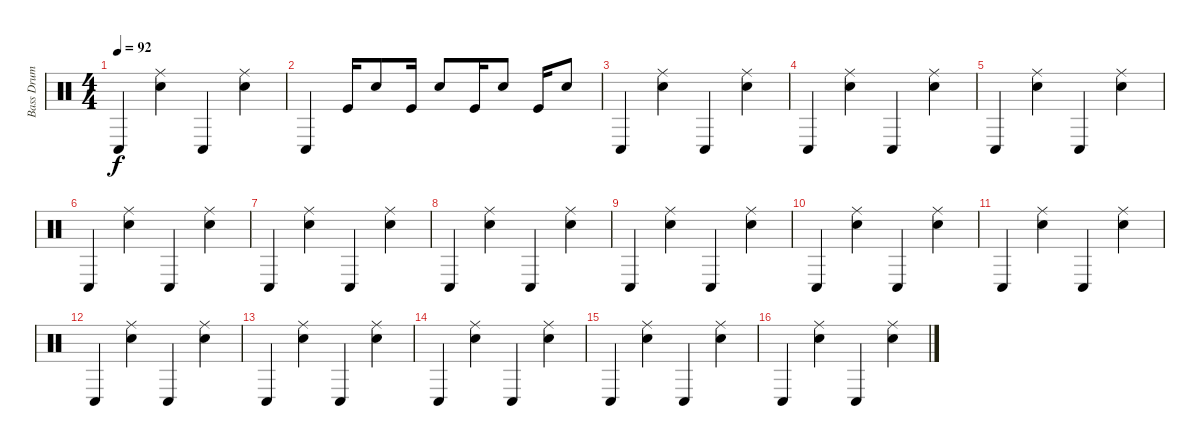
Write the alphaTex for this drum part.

\track ("Bass Drum" "Bass Drum") {instrument percussion}
\staff {score}
\articulation defaults
\ts (4 4)
\tempo 92
\clef neutral
\ks c "Conga low (hit)".4{dy f}
("Snare (hit) 2" "Ride (middle)").4 "Conga low (hit)".4 ("Snare (hit) 2" "Ride (middle)").4 |
"Conga low (hit)".4 "Kick (hit)".16 "Snare (hit) 2".8 "Kick (hit)".16 "Snare (hit) 2".8 "Kick (hit)".16 "Snare (hit) 2".8 "Kick (hit)".16 "Snare (hit) 2".8 |
"Conga low (hit)".4 ("Snare (hit) 2" "Ride (middle)").4 "Conga low (hit)".4 ("Snare (hit) 2" "Ride (middle)").4 |
"Conga low (hit)".4 ("Snare (hit) 2" "Ride (middle)").4 "Conga low (hit)".4 ("Snare (hit) 2" "Ride (middle)").4 |
"Conga low (hit)".4 ("Snare (hit) 2" "Ride (middle)").4 "Conga low (hit)".4 ("Snare (hit) 2" "Ride (middle)").4 |
"Conga low (hit)".4 ("Snare (hit) 2" "Ride (middle)").4 "Conga low (hit)".4 ("Snare (hit) 2" "Ride (middle)").4 |
"Conga low (hit)".4 ("Snare (hit) 2" "Ride (middle)").4 "Conga low (hit)".4 ("Snare (hit) 2" "Ride (middle)").4 |
"Conga low (hit)".4 ("Snare (hit) 2" "Ride (middle)").4 "Conga low (hit)".4 ("Snare (hit) 2" "Ride (middle)").4 |
"Conga low (hit)".4 ("Snare (hit) 2" "Ride (middle)").4 "Conga low (hit)".4 ("Snare (hit) 2" "Ride (middle)").4 |
"Conga low (hit)".4 ("Snare (hit) 2" "Ride (middle)").4 "Conga low (hit)".4 ("Snare (hit) 2" "Ride (middle)").4 |
"Conga low (hit)".4 ("Snare (hit) 2" "Ride (middle)").4 "Conga low (hit)".4 ("Snare (hit) 2" "Ride (middle)").4 |
"Conga low (hit)".4 ("Snare (hit) 2" "Ride (middle)").4 "Conga low (hit)".4 ("Snare (hit) 2" "Ride (middle)").4 |
"Conga low (hit)".4 ("Snare (hit) 2" "Ride (middle)").4 "Conga low (hit)".4 ("Snare (hit) 2" "Ride (middle)").4 |
"Conga low (hit)".4 ("Snare (hit) 2" "Ride (middle)").4 "Conga low (hit)".4 ("Snare (hit) 2" "Ride (middle)").4 |
"Conga low (hit)".4 ("Snare (hit) 2" "Ride (middle)").4 "Conga low (hit)".4 ("Snare (hit) 2" "Ride (middle)").4 |
"Conga low (hit)".4 ("Snare (hit) 2" "Ride (middle)").4 "Conga low (hit)".4 ("Snare (hit) 2" "Ride (middle)").4
